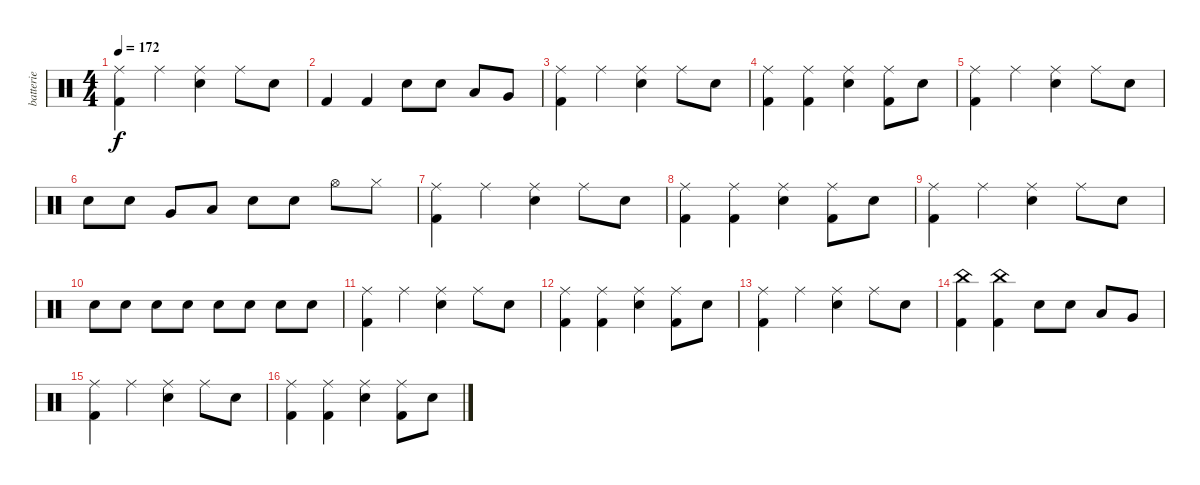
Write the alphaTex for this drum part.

\track ("batterie" "batterie") {instrument percussion}
\staff {score}
\articulation defaults
\ts (4 4)
\tempo 172
\clef neutral
\ks c
("Ride (middle)" "Kick (hit) 2").4{dy f} "Ride (middle)".4 ("Ride (middle)" "Electric Snare (hit)").4 "Ride (middle)".8 "Electric Snare (hit)".8 |
"Kick (hit) 2".4 "Kick (hit) 2".4 "Electric Snare (hit)".8 "Electric Snare (hit)".8 "Low Tom (hit)".8 "Very Low Tom (hit)".8 |
("Ride (middle)" "Kick (hit) 2").4 "Ride (middle)".4 ("Electric Snare (hit)" "Ride (middle)").4 "Ride (middle)".8 "Electric Snare (hit)".8 |
("Kick (hit) 2" "Ride (middle)").4 ("Kick (hit) 2" "Ride (middle)").4 ("Ride (middle)" "Electric Snare (hit)").4 ("Ride (middle)" "Kick (hit) 2").8 "Electric Snare (hit)".8 |
("Ride (middle)" "Kick (hit) 2").4 "Ride (middle)".4 ("Ride (middle)" "Electric Snare (hit)").4 "Ride (middle)".8 "Electric Snare (hit)".8 |
"Electric Snare (hit)".8 "Electric Snare (hit)".8 "Very Low Tom (hit)".8 "Low Tom (hit)".8 "Electric Snare (hit)".8 "Electric Snare (hit)".8 "Hi-Hat (open)".8 "Hi-Hat (closed)".8 |
("Ride (middle)" "Kick (hit) 2").4 "Ride (middle)".4 ("Electric Snare (hit)" "Ride (middle)").4 "Ride (middle)".8 "Electric Snare (hit)".8 |
("Kick (hit) 2" "Ride (middle)").4 ("Kick (hit) 2" "Ride (middle)").4 ("Ride (middle)" "Electric Snare (hit)").4 ("Ride (middle)" "Kick (hit) 2").8 "Electric Snare (hit)".8 |
("Ride (middle)" "Kick (hit) 2").4 "Ride (middle)".4 ("Ride (middle)" "Electric Snare (hit)").4 "Ride (middle)".8 "Electric Snare (hit)".8 |
"Electric Snare (hit)".8 "Electric Snare (hit)".8 "Electric Snare (hit)".8 "Electric Snare (hit)".8 "Electric Snare (hit)".8 "Electric Snare (hit)".8 "Electric Snare (hit)".8 "Electric Snare (hit)".8 |
("Ride (middle)" "Kick (hit) 2").4 "Ride (middle)".4 ("Electric Snare (hit)" "Ride (middle)").4 "Ride (middle)".8 "Electric Snare (hit)".8 |
("Kick (hit) 2" "Ride (middle)").4 ("Kick (hit) 2" "Ride (middle)").4 ("Ride (middle)" "Electric Snare (hit)").4 ("Ride (middle)" "Kick (hit) 2").8 "Electric Snare (hit)".8 |
("Ride (middle)" "Kick (hit) 2").4 "Ride (middle)".4 ("Ride (middle)" "Electric Snare (hit)").4 "Ride (middle)".8 "Electric Snare (hit)".8 |
("China (hit)" "Kick (hit) 2").4 ("China (hit)" "Kick (hit) 2").4 "Electric Snare (hit)".8 "Electric Snare (hit)".8 "Low Tom (hit)".8 "Very Low Tom (hit)".8 |
("Ride (middle)" "Kick (hit) 2").4 "Ride (middle)".4 ("Electric Snare (hit)" "Ride (middle)").4 "Ride (middle)".8 "Electric Snare (hit)".8 |
("Kick (hit) 2" "Ride (middle)").4 ("Kick (hit) 2" "Ride (middle)").4 ("Ride (middle)" "Electric Snare (hit)").4 ("Ride (middle)" "Kick (hit) 2").8 "Electric Snare (hit)".8
